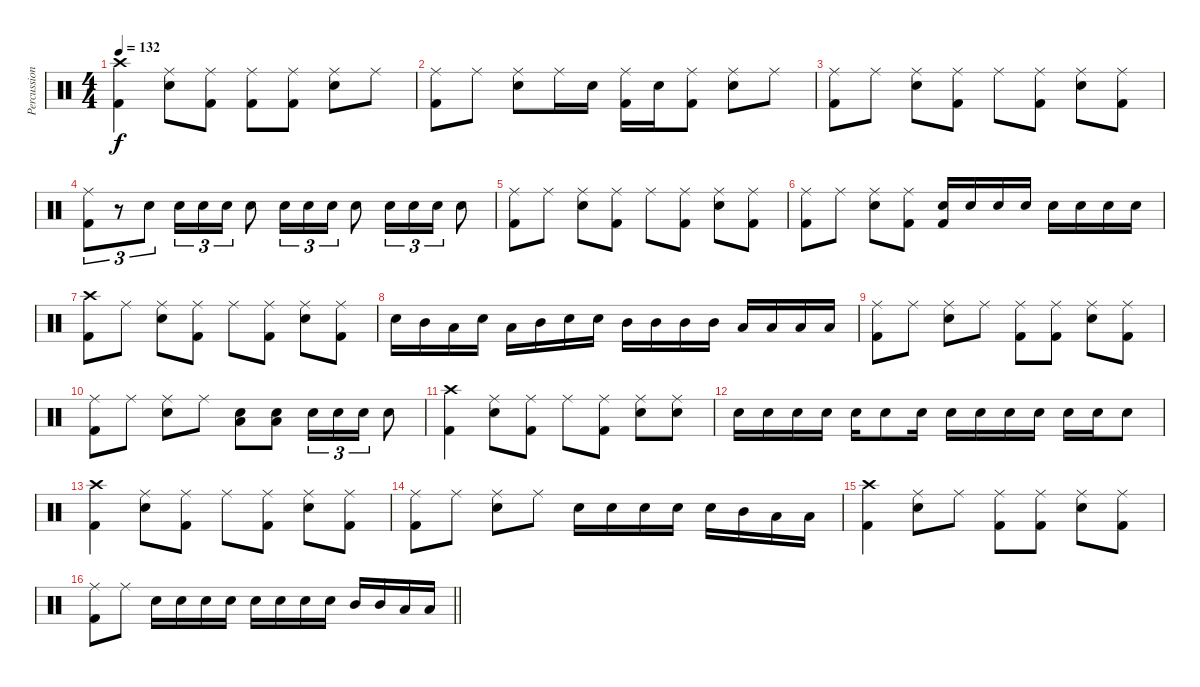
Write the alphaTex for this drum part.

\track ("Percussion" "Percussion") {instrument percussion}
\staff {score}
\articulation defaults
\ts (4 4)
\tempo 132
\clef neutral
\ks aminor
("Crash high (hit)" "Kick (hit) 2").4{dy f} ("Ride (middle)" "Snare (hit) 2").8 ("Ride (middle)" "Kick (hit) 2").8 ("Ride (middle)" "Kick (hit) 2").8 ("Ride (middle)" "Kick (hit) 2").8 ("Ride (middle)" "Snare (hit) 2").8 "Ride (middle)".8 |
("Ride (middle)" "Kick (hit) 2").8 "Ride (middle)".8 ("Ride (middle)" "Snare (hit) 2").8 "Ride (middle)".16 "Snare (hit) 2".16 ("Ride (middle)" "Kick (hit) 2").16 "Snare (hit) 2".16 ("Ride (middle)" "Kick (hit) 2").8 ("Ride (middle)" "Snare (hit) 2").8 "Ride (middle)".8 |
("Ride (middle)" "Kick (hit) 2").8 "Ride (middle)".8 ("Ride (middle)" "Snare (hit) 2").8 ("Ride (middle)" "Kick (hit) 2").8 "Ride (middle)".8 ("Ride (middle)" "Kick (hit) 2").8 ("Ride (middle)" "Snare (hit) 2").8 ("Ride (middle)" "Kick (hit) 2").8 |
("Ride (middle)" "Kick (hit) 2").8{tu (3 2)} r.8{tu (3 2)} "Snare (hit) 2".8{tu (3 2)} "Snare (hit) 2".16{tu (3 2)} "Snare (hit) 2".16{tu (3 2)} "Snare (hit) 2".16{tu (3 2)} "Snare (hit) 2".8 "Snare (hit) 2".16{tu (3 2)} "Snare (hit) 2".16{tu (3 2)} "Snare (hit) 2".16{tu (3 2)} "Snare (hit) 2".8 "Snare (hit) 2".16{tu (3 2)} "Snare (hit) 2".16{tu (3 2)} "Snare (hit) 2".16{tu (3 2)} "Snare (hit) 2".8 |
("Ride (middle)" "Kick (hit) 2").8 "Ride (middle)".8 ("Ride (middle)" "Snare (hit) 2").8 ("Ride (middle)" "Kick (hit) 2").8 "Ride (middle)".8 ("Ride (middle)" "Kick (hit) 2").8 ("Ride (middle)" "Snare (hit) 2").8 ("Ride (middle)" "Kick (hit) 2").8 |
("Ride (middle)" "Kick (hit) 2").8 "Ride (middle)".8 ("Ride (middle)" "Snare (hit) 2").8 ("Ride (middle)" "Kick (hit) 2").8 ("Snare (hit) 2" "Kick (hit) 2").16 "Snare (hit) 2".16 "Snare (hit) 2".16 "Snare (hit) 2".16 "Snare (hit) 2".16 "Snare (hit) 2".16 "Snare (hit) 2".16 "Snare (hit) 2".16 |
("Crash high (hit)" "Kick (hit) 2").8 "Ride (middle)".8 ("Ride (middle)" "Snare (hit) 2").8 ("Ride (middle)" "Kick (hit) 2").8 "Ride (middle)".8 ("Ride (middle)" "Kick (hit) 2").8 ("Ride (middle)" "Snare (hit) 2").8 ("Ride (middle)" "Kick (hit) 2").8 |
"Snare (hit) 2".16 "Mid Tom (hit)".16 "Low Floor Tom (hit)".16 "Snare (hit) 2".16 "Low Floor Tom (hit)".16 "Mid Tom (hit)".16 "Snare (hit) 2".16 "Snare (hit) 2".16 "Mid Tom (hit)".16 "Mid Tom (hit)".16 "Mid Tom (hit)".16 "Mid Tom (hit)".16 "Low Floor Tom (hit)".16 "Low Floor Tom (hit)".16 "Low Floor Tom (hit)".16 "Low Floor Tom (hit)".16 |
("Ride (middle)" "Kick (hit) 2").8 "Ride (middle)".8 ("Ride (middle)" "Snare (hit) 2").8 "Ride (middle)".8 ("Ride (middle)" "Kick (hit) 2").8 ("Ride (middle)" "Kick (hit) 2").8 ("Ride (middle)" "Snare (hit) 2").8 ("Ride (middle)" "Kick (hit) 2").8 |
("Ride (middle)" "Kick (hit) 2").8 "Ride (middle)".8 ("Ride (middle)" "Snare (hit) 2").8 "Ride (middle)".8 ("Snare (hit) 2" "Low Floor Tom (hit)").8 ("Snare (hit) 2" "Low Floor Tom (hit)").8 "Snare (hit) 2".16{tu (3 2)} "Snare (hit) 2".16{tu (3 2)} "Snare (hit) 2".16{tu (3 2)} "Snare (hit) 2".8 |
("Crash high (hit)" "Kick (hit) 2").4 ("Ride (middle)" "Snare (hit) 2").8 ("Ride (middle)" "Kick (hit) 2").8 "Ride (middle)".8 ("Ride (middle)" "Kick (hit) 2").8 ("Ride (middle)" "Snare (hit) 2").8 ("Ride (middle)" "Snare (hit) 2").8 |
"Snare (hit) 2".16 "Snare (hit) 2".16 "Snare (hit) 2".16 "Snare (hit) 2".16 "Snare (hit) 2".16 "Snare (hit) 2".8 "Snare (hit) 2".16 "Snare (hit) 2".16 "Snare (hit) 2".16 "Snare (hit) 2".16 "Snare (hit) 2".16 "Snare (hit) 2".16 "Snare (hit) 2".16 "Snare (hit) 2".8 |
("Crash high (hit)" "Kick (hit) 2").4 ("Ride (middle)" "Snare (hit) 2").8 ("Ride (middle)" "Kick (hit) 2").8 "Ride (middle)".8 ("Ride (middle)" "Kick (hit) 2").8 ("Ride (middle)" "Snare (hit) 2").8 ("Ride (middle)" "Kick (hit) 2").8 |
("Ride (middle)" "Kick (hit) 2").8 "Ride (middle)".8 ("Ride (middle)" "Snare (hit) 2").8 "Ride (middle)".8 "Snare (hit) 2".16 "Snare (hit) 2".16 "Snare (hit) 2".16 "Snare (hit) 2".16 "Snare (hit) 2".16 "Mid Tom (hit)".16 "Low Floor Tom (hit)".16 "Low Floor Tom (hit)".16 |
("Crash high (hit)" "Kick (hit) 2").4 ("Ride (middle)" "Snare (hit) 2").8 "Ride (middle)".8 ("Ride (middle)" "Kick (hit) 2").8 ("Ride (middle)" "Kick (hit) 2").8 ("Ride (middle)" "Snare (hit) 2").8 ("Ride (middle)" "Kick (hit) 2").8 |
\barLineRight lightlight
("Ride (middle)" "Kick (hit) 2").8 "Ride (middle)".8 "Snare (hit) 2".16 "Snare (hit) 2".16 "Snare (hit) 2".16 "Snare (hit) 2".16 "Snare (hit) 2".16 "Snare (hit) 2".16 "Snare (hit) 2".16 "Snare (hit) 2".16 "Mid Tom (hit)".16 "Mid Tom (hit)".16 "Low Floor Tom (hit)".16 "Low Floor Tom (hit)".16
